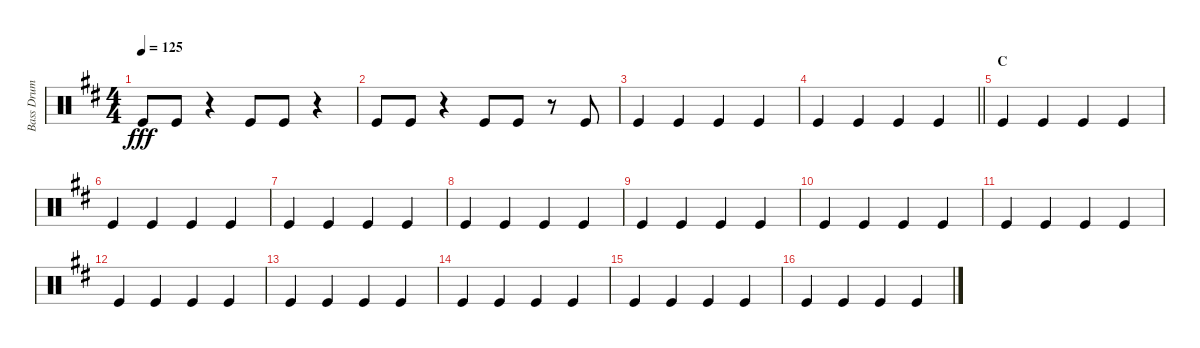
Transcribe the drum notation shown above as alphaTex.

\track ("Bass Drum" "Bass Drum") {instrument percussion}
\staff {score}
\articulation defaults
\ts (4 4)
\tempo 125
\clef neutral
\ks d "Kick (hit)".8{dy fff} "Kick (hit)".8
r.4 "Kick (hit)".8 "Kick (hit)".8 r.4 |
"Kick (hit)".8 "Kick (hit)".8 r.4 "Kick (hit)".8 "Kick (hit)".8 r.8 "Kick (hit)".8 |
"Kick (hit)".4 "Kick (hit)".4 "Kick (hit)".4 "Kick (hit)".4 |
\barLineRight lightlight "Kick (hit)".4 "Kick (hit)".4 "Kick (hit)".4 "Kick (hit)".4
|
\section ("" "C")
"Kick (hit)".4 "Kick (hit)".4 "Kick (hit)".4 "Kick (hit)".4 |
"Kick (hit)".4 "Kick (hit)".4 "Kick (hit)".4 "Kick (hit)".4 |
"Kick (hit)".4 "Kick (hit)".4 "Kick (hit)".4 "Kick (hit)".4 |
"Kick (hit)".4 "Kick (hit)".4 "Kick (hit)".4 "Kick (hit)".4 |
"Kick (hit)".4 "Kick (hit)".4 "Kick (hit)".4 "Kick (hit)".4 |
"Kick (hit)".4 "Kick (hit)".4 "Kick (hit)".4 "Kick (hit)".4 |
"Kick (hit)".4 "Kick (hit)".4 "Kick (hit)".4 "Kick (hit)".4 |
"Kick (hit)".4 "Kick (hit)".4 "Kick (hit)".4 "Kick (hit)".4 |
"Kick (hit)".4 "Kick (hit)".4 "Kick (hit)".4 "Kick (hit)".4 |
"Kick (hit)".4 "Kick (hit)".4 "Kick (hit)".4 "Kick (hit)".4 |
"Kick (hit)".4 "Kick (hit)".4 "Kick (hit)".4 "Kick (hit)".4 |
"Kick (hit)".4 "Kick (hit)".4 "Kick (hit)".4 "Kick (hit)".4
